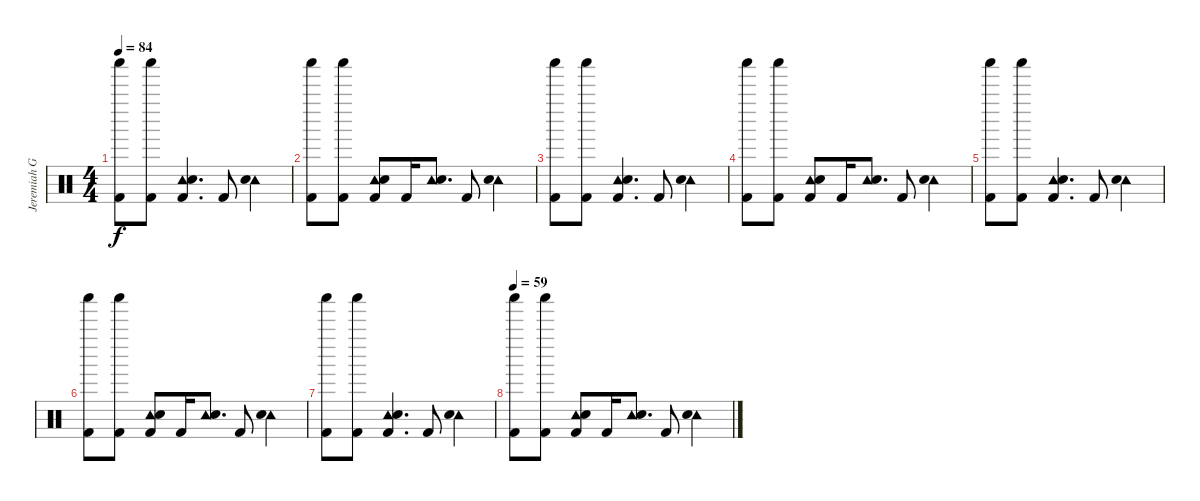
\track ("Jeremiah Green" "Jeremiah G") {instrument percussion}
\staff {score}
\articulation defaults
\ts (4 4)
\tempo 84
\clef neutral
\ks c
("Shaker (hit)" "Kick (hit) 2").8{dy f} ("Shaker (hit)" "Kick (hit) 2").8 ("Tambourine (hit)" "Electric Snare (hit)" "Kick (hit) 2").4{d} "Kick (hit) 2".8 ("Tambourine (hit)" "Electric Snare (hit)").4 |
("Shaker (hit)" "Kick (hit) 2").8 ("Shaker (hit)" "Kick (hit) 2").8 ("Tambourine (hit)" "Electric Snare (hit)" "Kick (hit) 2").8 "Kick (hit) 2".16 ("Tambourine (hit)" "Electric Snare (hit)").8{d} "Kick (hit) 2".8 ("Tambourine (hit)" "Electric Snare (hit)").4 |
("Shaker (hit)" "Kick (hit) 2").8 ("Shaker (hit)" "Kick (hit) 2").8 ("Tambourine (hit)" "Electric Snare (hit)" "Kick (hit) 2").4{d} "Kick (hit) 2".8 ("Tambourine (hit)" "Electric Snare (hit)").4 |
("Shaker (hit)" "Kick (hit) 2").8 ("Shaker (hit)" "Kick (hit) 2").8 ("Tambourine (hit)" "Electric Snare (hit)" "Kick (hit) 2").8 "Kick (hit) 2".16 ("Tambourine (hit)" "Electric Snare (hit)").8{d} "Kick (hit) 2".8 ("Tambourine (hit)" "Electric Snare (hit)").4 |
("Shaker (hit)" "Kick (hit) 2").8 ("Shaker (hit)" "Kick (hit) 2").8 ("Tambourine (hit)" "Electric Snare (hit)" "Kick (hit) 2").4{d} "Kick (hit) 2".8 ("Tambourine (hit)" "Electric Snare (hit)").4 |
("Shaker (hit)" "Kick (hit) 2").8 ("Shaker (hit)" "Kick (hit) 2").8 ("Tambourine (hit)" "Electric Snare (hit)" "Kick (hit) 2").8 "Kick (hit) 2".16 ("Tambourine (hit)" "Electric Snare (hit)").8{d} "Kick (hit) 2".8 ("Tambourine (hit)" "Electric Snare (hit)").4 |
("Shaker (hit)" "Kick (hit) 2").8 ("Shaker (hit)" "Kick (hit) 2").8 ("Tambourine (hit)" "Electric Snare (hit)" "Kick (hit) 2").4{d} "Kick (hit) 2".8 ("Tambourine (hit)" "Electric Snare (hit)").4 |
\tempo 59
("Shaker (hit)" "Kick (hit) 2").8 ("Shaker (hit)" "Kick (hit) 2").8 ("Tambourine (hit)" "Electric Snare (hit)" "Kick (hit) 2").8 "Kick (hit) 2".16 ("Tambourine (hit)" "Electric Snare (hit)").8{d} "Kick (hit) 2".8 ("Tambourine (hit)" "Electric Snare (hit)").4
